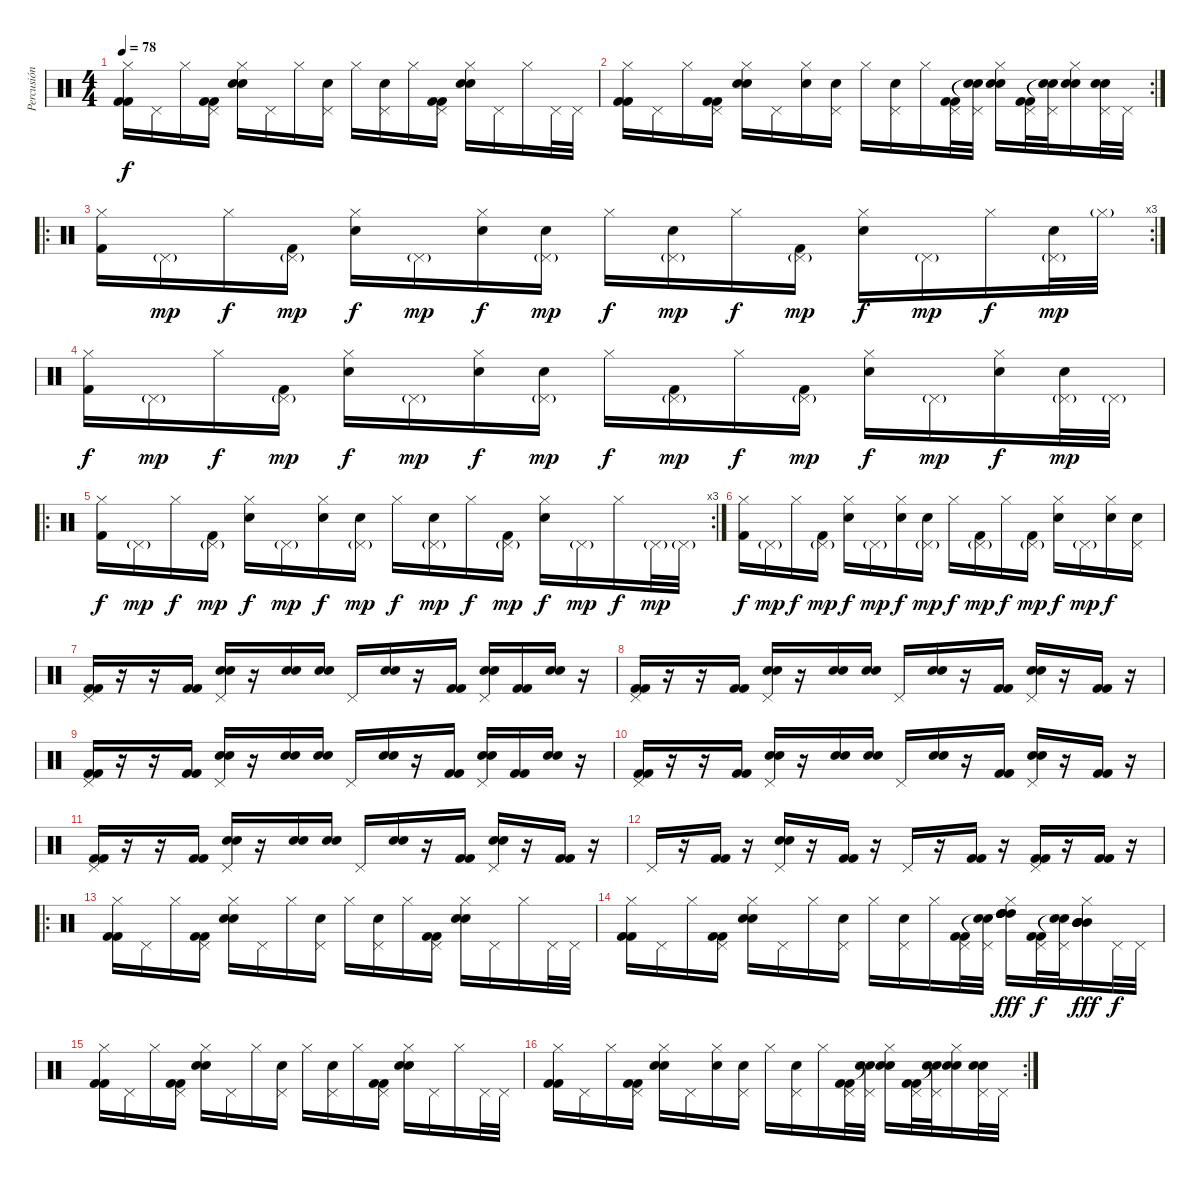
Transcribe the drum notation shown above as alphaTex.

\track ("Percusión" "Percusión") {instrument percussion}
\staff {score}
\articulation defaults
\ts (4 4)
\tempo 78
\clef neutral
\ks c
("Hi-Hat (closed)" "Kick (hit) 2" "Kick (hit) 2").16{dy f} "Pedal Hi-Hat (hit)".16 "Hi-Hat (closed)".16 ("Pedal Hi-Hat (hit)" "Kick (hit) 2" "Kick (hit) 2").16 ("Hi-Hat (closed)" "Electric Snare (hit)" "Electric Snare (hit)").16 "Pedal Hi-Hat (hit)".16 "Hi-Hat (closed)".16 ("Pedal Hi-Hat (hit)" "Electric Snare (hit)").16 "Hi-Hat (closed)".16 ("Pedal Hi-Hat (hit)" "Electric Snare (hit)").16 "Hi-Hat (closed)".16 ("Pedal Hi-Hat (hit)" "Kick (hit) 2" "Kick (hit) 2").16 ("Hi-Hat (closed)" "Electric Snare (hit)" "Electric Snare (hit)").16 "Pedal Hi-Hat (hit)".16 "Hi-Hat (closed)".16 "Pedal Hi-Hat (hit)".32 "Pedal Hi-Hat (hit)".32 |
\rc 2
("Hi-Hat (closed)" "Kick (hit) 2" "Kick (hit) 2").16 "Pedal Hi-Hat (hit)".16 "Hi-Hat (closed)".16 ("Pedal Hi-Hat (hit)" "Kick (hit) 2" "Kick (hit) 2").16 ("Hi-Hat (closed)" "Electric Snare (hit)" "Electric Snare (hit)").16 "Pedal Hi-Hat (hit)".16 ("Hi-Hat (closed)" "Electric Snare (hit)").16 ("Pedal Hi-Hat (hit)" "Electric Snare (hit)").16 "Hi-Hat (closed)".16 ("Pedal Hi-Hat (hit)" "Electric Snare (hit)").16 "Hi-Hat (closed)".16 ("Pedal Hi-Hat (hit)" "Kick (hit) 2" "Kick (hit) 2").32 ("Pedal Hi-Hat (hit)" "Snare (hit)"{t} "Snare (hit)"{t}).32 ("Hi-Hat (closed)" "Electric Snare (hit)" "Electric Snare (hit)").16 ("Pedal Hi-Hat (hit)" "Kick (hit) 2" "Kick (hit) 2").32 ("Pedal Hi-Hat (hit)" "Snare (hit)"{t} "Snare (hit)"{t}).32 ("Hi-Hat (closed)" "Electric Snare (hit)" "Electric Snare (hit)").16 ("Pedal Hi-Hat (hit)" "Electric Snare (hit)" "Electric Snare (hit)").32 "Pedal Hi-Hat (hit)".32 |
\ro
\rc 3
("Hi-Hat (closed)" "Kick (hit) 2").16 "Pedal Hi-Hat (hit)"{g}.16{dy mp} "Hi-Hat (closed)".16{dy f} ("Pedal Hi-Hat (hit)"{g} "Kick (hit) 2").16{dy mp} ("Hi-Hat (closed)" "Electric Snare (hit)").16{dy f} "Pedal Hi-Hat (hit)"{g}.16{dy mp} ("Hi-Hat (closed)" "Electric Snare (hit)").16{dy f} ("Pedal Hi-Hat (hit)"{g} "Electric Snare (hit)").16{dy mp} "Hi-Hat (closed)".16{dy f} ("Pedal Hi-Hat (hit)"{g} "Electric Snare (hit)").16{dy mp} "Hi-Hat (closed)".16{dy f} ("Pedal Hi-Hat (hit)"{g} "Kick (hit) 2").16{dy mp} ("Hi-Hat (closed)" "Electric Snare (hit)").16{dy f} "Pedal Hi-Hat (hit)"{g}.16{dy mp} "Hi-Hat (closed)".16{dy f} ("Pedal Hi-Hat (hit)"{g} "Electric Snare (hit)").32{dy mp} "Hi-Hat (closed)"{g}.32 |
("Hi-Hat (closed)" "Kick (hit) 2").16{dy f} "Pedal Hi-Hat (hit)"{g}.16{dy mp} "Hi-Hat (closed)".16{dy f} ("Pedal Hi-Hat (hit)"{g} "Kick (hit) 2").16{dy mp} ("Hi-Hat (closed)" "Electric Snare (hit)").16{dy f} "Pedal Hi-Hat (hit)"{g}.16{dy mp} ("Hi-Hat (closed)" "Electric Snare (hit)").16{dy f} ("Pedal Hi-Hat (hit)"{g} "Electric Snare (hit)").16{dy mp} "Hi-Hat (closed)".16{dy f} ("Pedal Hi-Hat (hit)"{g} "Kick (hit) 2").16{dy mp} "Hi-Hat (closed)".16{dy f} ("Pedal Hi-Hat (hit)"{g} "Kick (hit) 2").16{dy mp} ("Hi-Hat (closed)" "Electric Snare (hit)").16{dy f} "Pedal Hi-Hat (hit)"{g}.16{dy mp} ("Hi-Hat (closed)" "Electric Snare (hit)").16{dy f} ("Pedal Hi-Hat (hit)"{g} "Electric Snare (hit)").32{dy mp} "Pedal Hi-Hat (hit)"{g}.32 |
\ro
\rc 3
("Hi-Hat (closed)" "Kick (hit) 2").16{dy f} "Pedal Hi-Hat (hit)"{g}.16{dy mp} "Hi-Hat (closed)".16{dy f} ("Pedal Hi-Hat (hit)"{g} "Kick (hit) 2").16{dy mp} ("Hi-Hat (closed)" "Electric Snare (hit)").16{dy f} "Pedal Hi-Hat (hit)"{g}.16{dy mp} ("Hi-Hat (closed)" "Electric Snare (hit)").16{dy f} ("Pedal Hi-Hat (hit)"{g} "Electric Snare (hit)").16{dy mp} "Hi-Hat (closed)".16{dy f} ("Pedal Hi-Hat (hit)"{g} "Electric Snare (hit)").16{dy mp} "Hi-Hat (closed)".16{dy f} ("Pedal Hi-Hat (hit)"{g} "Kick (hit) 2").16{dy mp} ("Hi-Hat (closed)" "Electric Snare (hit)").16{dy f} "Pedal Hi-Hat (hit)"{g}.16{dy mp} "Hi-Hat (closed)".16{dy f} "Pedal Hi-Hat (hit)"{g}.32{dy mp} "Pedal Hi-Hat (hit)"{g}.32 |
("Hi-Hat (closed)" "Kick (hit) 2").16{dy f} "Pedal Hi-Hat (hit)"{g}.16{dy mp} "Hi-Hat (closed)".16{dy f} ("Pedal Hi-Hat (hit)"{g} "Kick (hit) 2").16{dy mp} ("Hi-Hat (closed)" "Electric Snare (hit)").16{dy f} "Pedal Hi-Hat (hit)"{g}.16{dy mp} ("Hi-Hat (closed)" "Electric Snare (hit)").16{dy f} ("Pedal Hi-Hat (hit)"{g} "Electric Snare (hit)").16{dy mp} "Hi-Hat (closed)".16{dy f} ("Pedal Hi-Hat (hit)"{g} "Kick (hit) 2").16{dy mp} "Hi-Hat (closed)".16{dy f} ("Pedal Hi-Hat (hit)"{g} "Kick (hit) 2").16{dy mp} ("Hi-Hat (closed)" "Electric Snare (hit)").16{dy f} "Pedal Hi-Hat (hit)"{g}.16{dy mp} ("Hi-Hat (closed)" "Electric Snare (hit)").16{dy f} ("Pedal Hi-Hat (hit)" "Electric Snare (hit)").16 |
("Pedal Hi-Hat (hit)" "Kick (hit) 2" "Kick (hit) 2").16 r.16 r.16 ("Kick (hit) 2" "Kick (hit) 2").16 ("Pedal Hi-Hat (hit)" "Electric Snare (hit)" "Electric Snare (hit)").16 r.16 ("Electric Snare (hit)" "Electric Snare (hit)").16 ("Electric Snare (hit)" "Electric Snare (hit)").16 "Pedal Hi-Hat (hit)".16 ("Electric Snare (hit)" "Electric Snare (hit)").16 r.16 ("Kick (hit) 2" "Kick (hit) 2").16 ("Pedal Hi-Hat (hit)" "Electric Snare (hit)" "Electric Snare (hit)").16 ("Kick (hit) 2" "Kick (hit) 2").16 ("Electric Snare (hit)" "Electric Snare (hit)").16 r.16 |
("Pedal Hi-Hat (hit)" "Kick (hit) 2" "Kick (hit) 2").16 r.16 r.16 ("Kick (hit) 2" "Kick (hit) 2").16 ("Pedal Hi-Hat (hit)" "Electric Snare (hit)" "Electric Snare (hit)").16 r.16 ("Electric Snare (hit)" "Electric Snare (hit)").16 ("Electric Snare (hit)" "Electric Snare (hit)").16 "Pedal Hi-Hat (hit)".16 ("Electric Snare (hit)" "Electric Snare (hit)").16 r.16 ("Kick (hit) 2" "Kick (hit) 2").16 ("Pedal Hi-Hat (hit)" "Electric Snare (hit)" "Electric Snare (hit)").16 r.16 ("Kick (hit) 2" "Kick (hit) 2").16 r.16 |
("Pedal Hi-Hat (hit)" "Kick (hit) 2" "Kick (hit) 2").16 r.16 r.16 ("Kick (hit) 2" "Kick (hit) 2").16 ("Pedal Hi-Hat (hit)" "Electric Snare (hit)" "Electric Snare (hit)").16 r.16 ("Electric Snare (hit)" "Electric Snare (hit)").16 ("Electric Snare (hit)" "Electric Snare (hit)").16 "Pedal Hi-Hat (hit)".16 ("Electric Snare (hit)" "Electric Snare (hit)").16 r.16 ("Kick (hit) 2" "Kick (hit) 2").16 ("Pedal Hi-Hat (hit)" "Electric Snare (hit)" "Electric Snare (hit)").16 ("Kick (hit) 2" "Kick (hit) 2").16 ("Electric Snare (hit)" "Electric Snare (hit)").16 r.16 |
("Pedal Hi-Hat (hit)" "Kick (hit) 2" "Kick (hit) 2").16 r.16 r.16 ("Kick (hit) 2" "Kick (hit) 2").16 ("Pedal Hi-Hat (hit)" "Electric Snare (hit)" "Electric Snare (hit)").16 r.16 ("Electric Snare (hit)" "Electric Snare (hit)").16 ("Electric Snare (hit)" "Electric Snare (hit)").16 "Pedal Hi-Hat (hit)".16 ("Electric Snare (hit)" "Electric Snare (hit)").16 r.16 ("Kick (hit) 2" "Kick (hit) 2").16 ("Pedal Hi-Hat (hit)" "Electric Snare (hit)" "Electric Snare (hit)").16 r.16 ("Kick (hit) 2" "Kick (hit) 2").16 r.16 |
("Pedal Hi-Hat (hit)" "Kick (hit) 2" "Kick (hit) 2").16 r.16 r.16 ("Kick (hit) 2" "Kick (hit) 2").16 ("Pedal Hi-Hat (hit)" "Electric Snare (hit)" "Electric Snare (hit)").16 r.16 ("Electric Snare (hit)" "Electric Snare (hit)").16 ("Electric Snare (hit)" "Electric Snare (hit)").16 "Pedal Hi-Hat (hit)".16 ("Electric Snare (hit)" "Electric Snare (hit)").16 r.16 ("Kick (hit) 2" "Kick (hit) 2").16 ("Pedal Hi-Hat (hit)" "Electric Snare (hit)" "Electric Snare (hit)").16 r.16 ("Kick (hit) 2" "Kick (hit) 2").16 r.16 |
"Pedal Hi-Hat (hit)".16 r.16 ("Kick (hit) 2" "Kick (hit) 2").16 r.16 ("Pedal Hi-Hat (hit)" "Electric Snare (hit)" "Electric Snare (hit)").16 r.16 ("Kick (hit) 2" "Kick (hit) 2").16 r.16 "Pedal Hi-Hat (hit)".16 r.16 ("Kick (hit) 2" "Kick (hit) 2").16 r.16 ("Pedal Hi-Hat (hit)" "Kick (hit) 2" "Kick (hit) 2").16 r.16 ("Kick (hit) 2" "Kick (hit) 2").16 r.16 |
\ro
("Hi-Hat (closed)" "Kick (hit) 2" "Kick (hit) 2").16 "Pedal Hi-Hat (hit)".16 "Hi-Hat (closed)".16 ("Pedal Hi-Hat (hit)" "Kick (hit) 2" "Kick (hit) 2").16 ("Hi-Hat (closed)" "Electric Snare (hit)" "Electric Snare (hit)").16 "Pedal Hi-Hat (hit)".16 "Hi-Hat (closed)".16 ("Pedal Hi-Hat (hit)" "Electric Snare (hit)").16 "Hi-Hat (closed)".16 ("Pedal Hi-Hat (hit)" "Electric Snare (hit)").16 "Hi-Hat (closed)".16 ("Pedal Hi-Hat (hit)" "Kick (hit) 2" "Kick (hit) 2").16 ("Hi-Hat (closed)" "Electric Snare (hit)" "Electric Snare (hit)").16 "Pedal Hi-Hat (hit)".16 "Hi-Hat (closed)".16 "Pedal Hi-Hat (hit)".32 "Pedal Hi-Hat (hit)".32 |
("Hi-Hat (closed)" "Kick (hit) 2" "Kick (hit) 2").16 "Pedal Hi-Hat (hit)".16 "Hi-Hat (closed)".16 ("Pedal Hi-Hat (hit)" "Kick (hit) 2" "Kick (hit) 2").16 ("Hi-Hat (closed)" "Electric Snare (hit)" "Electric Snare (hit)").16 "Pedal Hi-Hat (hit)".16 "Hi-Hat (closed)".16 ("Pedal Hi-Hat (hit)" "Electric Snare (hit)").16 "Hi-Hat (closed)".16 ("Pedal Hi-Hat (hit)" "Electric Snare (hit)").16 "Hi-Hat (closed)".16 ("Pedal Hi-Hat (hit)" "Kick (hit) 2" "Kick (hit) 2").32 ("Pedal Hi-Hat (hit)" "Snare (hit)"{t} "Snare (hit)"{t}).32 ("Hi-Hat (closed)" "High Tom (hit)" "High Tom (hit)" "High Tom (hit)" "High Tom (hit)" "High Tom (hit)").16{dy fff} ("Pedal Hi-Hat (hit)" "Kick (hit) 2" "Kick (hit) 2").32{dy f} ("Pedal Hi-Hat (hit)" "Snare (hit)"{t} "Snare (hit)"{t}).32 ("Hi-Hat (closed)" "Mid Tom (hit)" "Mid Tom (hit)" "Mid Tom (hit)" "Mid Tom (hit)" "Mid Tom (hit)").16{dy fff} "Pedal Hi-Hat (hit)".32{dy f} "Pedal Hi-Hat (hit)".32 |
("Hi-Hat (closed)" "Kick (hit) 2" "Kick (hit) 2").16 "Pedal Hi-Hat (hit)".16 "Hi-Hat (closed)".16 ("Pedal Hi-Hat (hit)" "Kick (hit) 2" "Kick (hit) 2").16 ("Hi-Hat (closed)" "Electric Snare (hit)" "Electric Snare (hit)").16 "Pedal Hi-Hat (hit)".16 "Hi-Hat (closed)".16 ("Pedal Hi-Hat (hit)" "Electric Snare (hit)").16 "Hi-Hat (closed)".16 ("Pedal Hi-Hat (hit)" "Electric Snare (hit)").16 "Hi-Hat (closed)".16 ("Pedal Hi-Hat (hit)" "Kick (hit) 2" "Kick (hit) 2").16 ("Hi-Hat (closed)" "Electric Snare (hit)" "Electric Snare (hit)").16 "Pedal Hi-Hat (hit)".16 "Hi-Hat (closed)".16 "Pedal Hi-Hat (hit)".32 "Pedal Hi-Hat (hit)".32 |
\rc 2
("Hi-Hat (closed)" "Kick (hit) 2" "Kick (hit) 2").16 "Pedal Hi-Hat (hit)".16 "Hi-Hat (closed)".16 ("Pedal Hi-Hat (hit)" "Kick (hit) 2" "Kick (hit) 2").16 ("Hi-Hat (closed)" "Electric Snare (hit)" "Electric Snare (hit)").16 "Pedal Hi-Hat (hit)".16 ("Hi-Hat (closed)" "Electric Snare (hit)").16 ("Pedal Hi-Hat (hit)" "Electric Snare (hit)").16 "Hi-Hat (closed)".16 ("Pedal Hi-Hat (hit)" "Electric Snare (hit)").16 "Hi-Hat (closed)".16 ("Pedal Hi-Hat (hit)" "Kick (hit) 2" "Kick (hit) 2").32 ("Pedal Hi-Hat (hit)" "Snare (hit)"{t} "Snare (hit)"{t}).32 ("Hi-Hat (closed)" "Electric Snare (hit)" "Electric Snare (hit)").16 ("Pedal Hi-Hat (hit)" "Kick (hit) 2" "Kick (hit) 2").32 ("Pedal Hi-Hat (hit)" "Snare (hit)"{t} "Snare (hit)"{t}).32 ("Hi-Hat (closed)" "Electric Snare (hit)" "Electric Snare (hit)").16 ("Pedal Hi-Hat (hit)" "Electric Snare (hit)" "Electric Snare (hit)").32 "Pedal Hi-Hat (hit)".32
